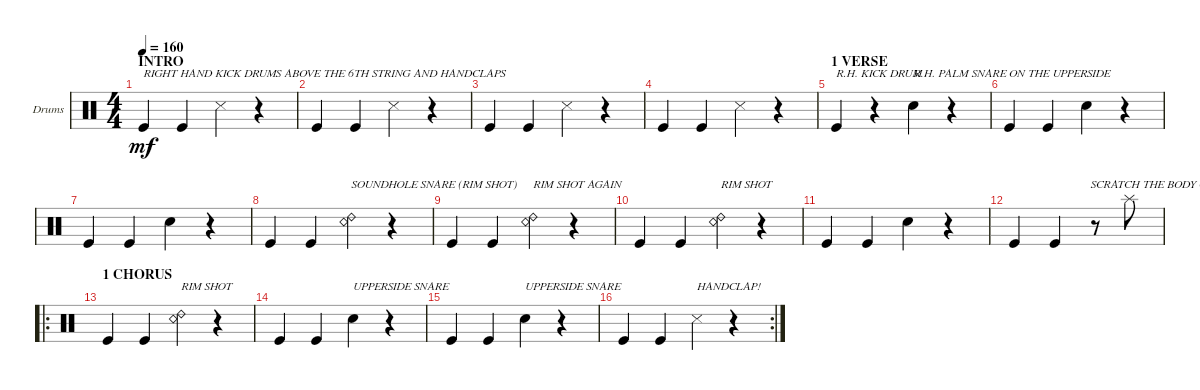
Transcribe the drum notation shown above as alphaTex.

\defaultSystemsLayout 4
\bracketExtendMode groupsimilarinstruments
\firstSystemTrackNameOrientation horizontal
\otherSystemsTrackNameOrientation horizontal
\track ("Drumkit" "Drums") {instrument percussion}
\staff {score}
\articulation defaults
\ts (4 4)
\section ("" "INTRO")
\tempo 160
\clef neutral
\ks c "Kick (hit)".4{txt "RIGHT HAND KICK DRUMS ABOVE THE 6TH STRING AND HANDCLAPS" dy mf} "Kick (hit)".4 "Snare (side stick) 3".4
r.4 |
"Kick (hit)".4 "Kick (hit)".4 "Snare (side stick) 3".4 r.4 |
"Kick (hit)".4 "Kick (hit)".4 "Snare (side stick) 3".4 r.4 |
"Kick (hit)".4 "Kick (hit)".4 "Snare (side stick) 3".4 r.4 |
\section ("" "1 VERSE")
"Kick (hit)".4{txt "R.H. KICK DRUM"} r.4 "Snare (hit) 2".4{txt "R.H. PALM SNARE ON THE UPPERSIDE"} r.4 |
"Kick (hit)".4 "Kick (hit)".4 "Snare (hit) 2".4 r.4 |
"Kick (hit)".4 "Kick (hit)".4 "Snare (hit) 2".4 r.4 |
"Kick (hit)".4 "Kick (hit)".4 ("Snare (rim shot)" "Ride (bell) 2").4{txt "SOUNDHOLE SNARE (RIM SHOT)"} r.4 |
"Kick (hit)".4 "Kick (hit)".4 ("Snare (rim shot)" "Ride (bell) 2").4{txt "RIM SHOT AGAIN"} r.4 |
"Kick (hit)".4 "Kick (hit)".4 ("Snare (rim shot)" "Ride (bell) 2").4{txt "RIM SHOT"} r.4 |
"Kick (hit)".4 "Kick (hit)".4 "Snare (hit) 2".4 r.4 |
"Kick (hit)".4 "Kick (hit)".4{txt "            SCRATCH THE BODY OF THE GUITAR BRUTALLY!"} r.8 "Splash (hit)".8 |
\ro
\section ("" "1 CHORUS")
"Kick (hit)".4 "Kick (hit)".4 ("Snare (rim shot)" "Ride (bell) 2").4{txt "RIM SHOT"} r.4 |
"Kick (hit)".4 "Kick (hit)".4 "Snare (hit) 2".4{txt "UPPERSIDE SNARE"} r.4 |
"Kick (hit)".4 "Kick (hit)".4 "Snare (hit) 2".4{txt "UPPERSIDE SNARE"} r.4 |
\rc 2 "Kick (hit)".4 "Kick (hit)".4 "Snare (side stick) 3".4{txt "HANDCLAP!"}
r.4
